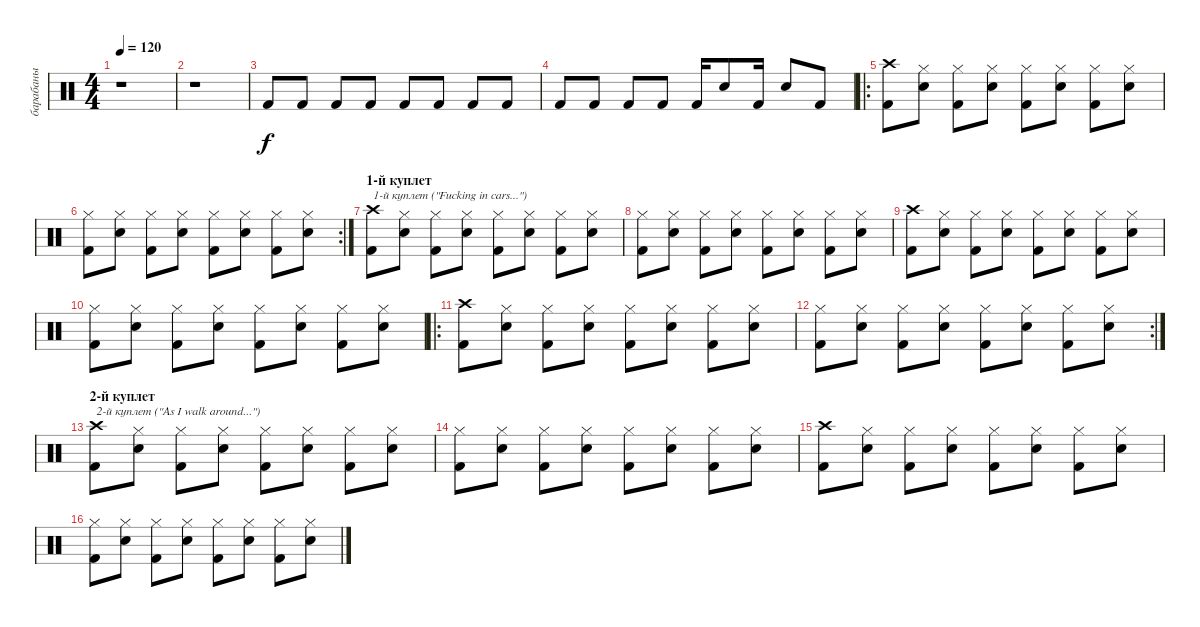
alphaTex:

\track ("барабаны" "барабаны") {instrument percussion}
\staff {score}
\articulation defaults
\ts (4 4)
\tempo 120
\clef neutral
\ks c
r.1{dy f} |
r.1 |
"Kick (hit) 2".8 "Kick (hit) 2".8 "Kick (hit) 2".8 "Kick (hit) 2".8 "Kick (hit) 2".8 "Kick (hit) 2".8 "Kick (hit) 2".8 "Kick (hit) 2".8 |
"Kick (hit) 2".8 "Kick (hit) 2".8 "Kick (hit) 2".8 "Kick (hit) 2".8 "Kick (hit) 2".16 "Snare (hit) 2".8 "Kick (hit) 2".16 "Snare (hit) 2".8 "Kick (hit) 2".8 |
\ro
("Crash high (hit)" "Kick (hit) 2").8 ("Hi-Hat (closed)" "Snare (hit) 2").8 ("Hi-Hat (closed)" "Kick (hit) 2").8 ("Hi-Hat (closed)" "Snare (hit) 2").8 ("Hi-Hat (closed)" "Kick (hit) 2").8 ("Hi-Hat (closed)" "Snare (hit) 2").8 ("Hi-Hat (closed)" "Kick (hit) 2").8 ("Hi-Hat (closed)" "Snare (hit) 2").8 |
\rc 2
("Hi-Hat (closed)" "Kick (hit) 2").8 ("Hi-Hat (closed)" "Snare (hit) 2").8 ("Hi-Hat (closed)" "Kick (hit) 2").8 ("Hi-Hat (closed)" "Snare (hit) 2").8 ("Hi-Hat (closed)" "Kick (hit) 2").8 ("Hi-Hat (closed)" "Snare (hit) 2").8 ("Hi-Hat (closed)" "Kick (hit) 2").8 ("Hi-Hat (closed)" "Snare (hit) 2").8 |
\section ("" "1-й куплет")
("Crash high (hit)" "Kick (hit) 2").8{txt "1-й куплет (\"Fucking in cars...\")"} ("Hi-Hat (closed)" "Snare (hit) 2").8 ("Hi-Hat (closed)" "Kick (hit) 2").8 ("Hi-Hat (closed)" "Snare (hit) 2").8 ("Hi-Hat (closed)" "Kick (hit) 2").8 ("Hi-Hat (closed)" "Snare (hit) 2").8 ("Hi-Hat (closed)" "Kick (hit) 2").8 ("Hi-Hat (closed)" "Snare (hit) 2").8 |
("Hi-Hat (closed)" "Kick (hit) 2").8 ("Hi-Hat (closed)" "Snare (hit) 2").8 ("Hi-Hat (closed)" "Kick (hit) 2").8 ("Hi-Hat (closed)" "Snare (hit) 2").8 ("Hi-Hat (closed)" "Kick (hit) 2").8 ("Hi-Hat (closed)" "Snare (hit) 2").8 ("Hi-Hat (closed)" "Kick (hit) 2").8 ("Hi-Hat (closed)" "Snare (hit) 2").8 |
("Crash high (hit)" "Kick (hit) 2").8 ("Hi-Hat (closed)" "Snare (hit) 2").8 ("Hi-Hat (closed)" "Kick (hit) 2").8 ("Hi-Hat (closed)" "Snare (hit) 2").8 ("Hi-Hat (closed)" "Kick (hit) 2").8 ("Hi-Hat (closed)" "Snare (hit) 2").8 ("Hi-Hat (closed)" "Kick (hit) 2").8 ("Hi-Hat (closed)" "Snare (hit) 2").8 |
("Hi-Hat (closed)" "Kick (hit) 2").8 ("Hi-Hat (closed)" "Snare (hit) 2").8 ("Hi-Hat (closed)" "Kick (hit) 2").8 ("Hi-Hat (closed)" "Snare (hit) 2").8 ("Hi-Hat (closed)" "Kick (hit) 2").8 ("Hi-Hat (closed)" "Snare (hit) 2").8 ("Hi-Hat (closed)" "Kick (hit) 2").8 ("Hi-Hat (closed)" "Snare (hit) 2").8 |
\ro
("Crash high (hit)" "Kick (hit) 2").8 ("Hi-Hat (closed)" "Snare (hit) 2").8 ("Hi-Hat (closed)" "Kick (hit) 2").8 ("Hi-Hat (closed)" "Snare (hit) 2").8 ("Hi-Hat (closed)" "Kick (hit) 2").8 ("Hi-Hat (closed)" "Snare (hit) 2").8 ("Hi-Hat (closed)" "Kick (hit) 2").8 ("Hi-Hat (closed)" "Snare (hit) 2").8 |
\rc 2
("Hi-Hat (closed)" "Kick (hit) 2").8 ("Hi-Hat (closed)" "Snare (hit) 2").8 ("Hi-Hat (closed)" "Kick (hit) 2").8 ("Hi-Hat (closed)" "Snare (hit) 2").8 ("Hi-Hat (closed)" "Kick (hit) 2").8 ("Hi-Hat (closed)" "Snare (hit) 2").8 ("Hi-Hat (closed)" "Kick (hit) 2").8 ("Hi-Hat (closed)" "Snare (hit) 2").8 |
\section ("" "2-й куплет")
("Crash high (hit)" "Kick (hit) 2").8{txt "2-й куплет (\"As I walk around...\")"} ("Hi-Hat (closed)" "Snare (hit) 2").8 ("Hi-Hat (closed)" "Kick (hit) 2").8 ("Hi-Hat (closed)" "Snare (hit) 2").8 ("Hi-Hat (closed)" "Kick (hit) 2").8 ("Hi-Hat (closed)" "Snare (hit) 2").8 ("Hi-Hat (closed)" "Kick (hit) 2").8 ("Hi-Hat (closed)" "Snare (hit) 2").8 |
("Hi-Hat (closed)" "Kick (hit) 2").8 ("Hi-Hat (closed)" "Snare (hit) 2").8 ("Hi-Hat (closed)" "Kick (hit) 2").8 ("Hi-Hat (closed)" "Snare (hit) 2").8 ("Hi-Hat (closed)" "Kick (hit) 2").8 ("Hi-Hat (closed)" "Snare (hit) 2").8 ("Hi-Hat (closed)" "Kick (hit) 2").8 ("Hi-Hat (closed)" "Snare (hit) 2").8 |
("Crash high (hit)" "Kick (hit) 2").8 ("Hi-Hat (closed)" "Snare (hit) 2").8 ("Hi-Hat (closed)" "Kick (hit) 2").8 ("Hi-Hat (closed)" "Snare (hit) 2").8 ("Hi-Hat (closed)" "Kick (hit) 2").8 ("Hi-Hat (closed)" "Snare (hit) 2").8 ("Hi-Hat (closed)" "Kick (hit) 2").8 ("Hi-Hat (closed)" "Snare (hit) 2").8 |
("Hi-Hat (closed)" "Kick (hit) 2").8 ("Hi-Hat (closed)" "Snare (hit) 2").8 ("Hi-Hat (closed)" "Kick (hit) 2").8 ("Hi-Hat (closed)" "Snare (hit) 2").8 ("Hi-Hat (closed)" "Kick (hit) 2").8 ("Hi-Hat (closed)" "Snare (hit) 2").8 ("Hi-Hat (closed)" "Kick (hit) 2").8 ("Hi-Hat (closed)" "Snare (hit) 2").8
